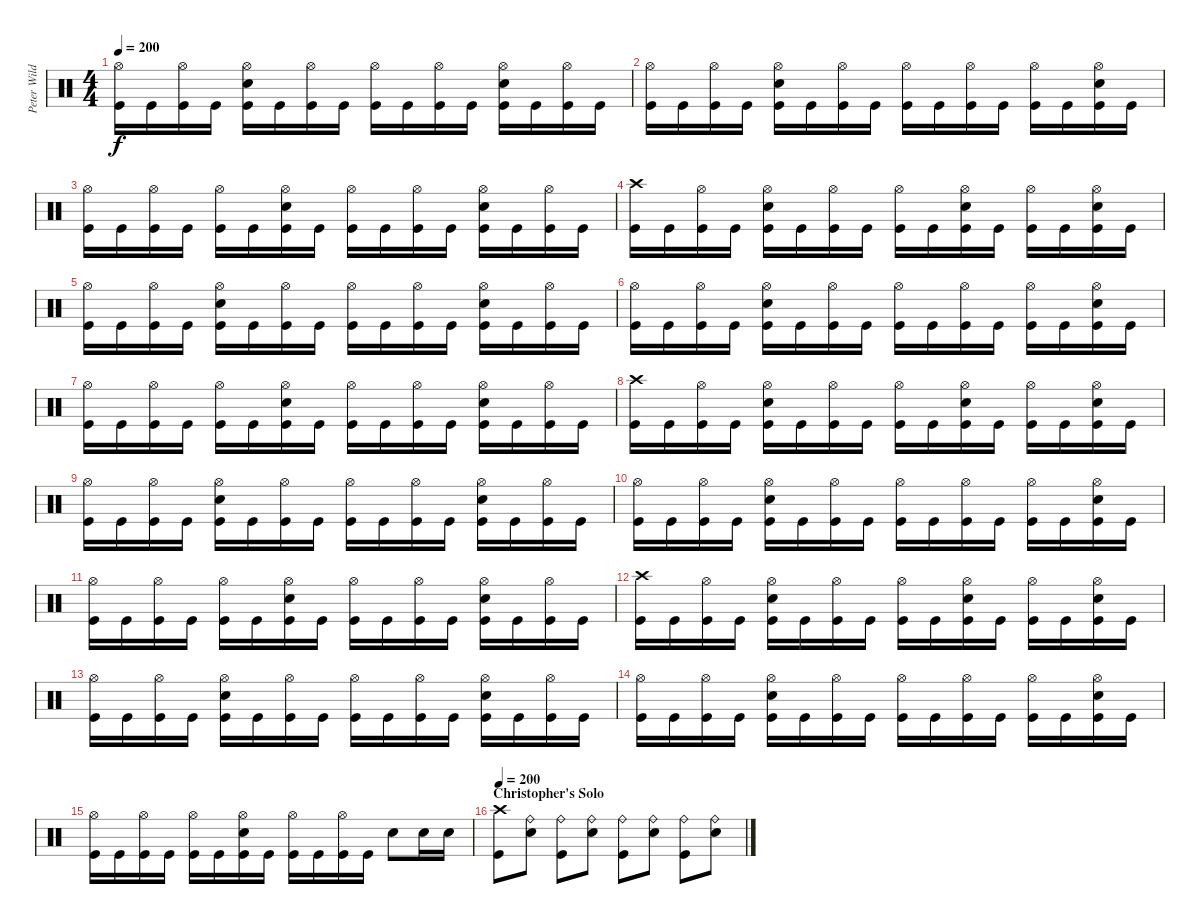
\track ("Peter Wildoer " "Peter Wild") {instrument percussion}
\staff {score}
\articulation defaults
\ts (4 4)
\tempo 200
\clef neutral
\ks c
("Hi-Hat (open)" "Kick (hit)").16{dy f} "Kick (hit)".16 ("Hi-Hat (open)" "Kick (hit)").16 "Kick (hit)".16 ("Hi-Hat (open)" "Electric Snare (hit)" "Kick (hit)").16 "Kick (hit)".16 ("Hi-Hat (open)" "Kick (hit)").16 "Kick (hit)".16 ("Hi-Hat (open)" "Kick (hit)").16 "Kick (hit)".16 ("Hi-Hat (open)" "Kick (hit)").16 "Kick (hit)".16 ("Hi-Hat (open)" "Electric Snare (hit)" "Kick (hit)").16 "Kick (hit)".16 ("Hi-Hat (open)" "Kick (hit)").16 "Kick (hit)".16 |
("Hi-Hat (open)" "Kick (hit)").16 "Kick (hit)".16 ("Hi-Hat (open)" "Kick (hit)").16 "Kick (hit)".16 ("Hi-Hat (open)" "Electric Snare (hit)" "Kick (hit)").16 "Kick (hit)".16 ("Hi-Hat (open)" "Kick (hit)").16 "Kick (hit)".16 ("Hi-Hat (open)" "Kick (hit)").16 "Kick (hit)".16 ("Hi-Hat (open)" "Kick (hit)").16 "Kick (hit)".16 ("Hi-Hat (open)" "Kick (hit)").16 "Kick (hit)".16 ("Hi-Hat (open)" "Electric Snare (hit)" "Kick (hit)").16 "Kick (hit)".16 |
("Hi-Hat (open)" "Kick (hit)").16 "Kick (hit)".16 ("Hi-Hat (open)" "Kick (hit)").16 "Kick (hit)".16 ("Hi-Hat (open)" "Kick (hit)").16 "Kick (hit)".16 ("Hi-Hat (open)" "Electric Snare (hit)" "Kick (hit)").16 "Kick (hit)".16 ("Hi-Hat (open)" "Kick (hit)").16 "Kick (hit)".16 ("Hi-Hat (open)" "Kick (hit)").16 "Kick (hit)".16 ("Hi-Hat (open)" "Electric Snare (hit)" "Kick (hit)").16 "Kick (hit)".16 ("Hi-Hat (open)" "Kick (hit)").16 "Kick (hit)".16 |
("Crash high (hit)" "Kick (hit)").16 "Kick (hit)".16 ("Hi-Hat (open)" "Kick (hit)").16 "Kick (hit)".16 ("Hi-Hat (open)" "Electric Snare (hit)" "Kick (hit)").16 "Kick (hit)".16 ("Hi-Hat (open)" "Kick (hit)").16 "Kick (hit)".16 ("Hi-Hat (open)" "Kick (hit)").16 "Kick (hit)".16 ("Hi-Hat (open)" "Electric Snare (hit)" "Kick (hit)").16 "Kick (hit)".16 ("Hi-Hat (open)" "Kick (hit)").16 "Kick (hit)".16 ("Hi-Hat (open)" "Electric Snare (hit)" "Kick (hit)").16 "Kick (hit)".16 |
("Hi-Hat (open)" "Kick (hit)").16 "Kick (hit)".16 ("Hi-Hat (open)" "Kick (hit)").16 "Kick (hit)".16 ("Hi-Hat (open)" "Electric Snare (hit)" "Kick (hit)").16 "Kick (hit)".16 ("Hi-Hat (open)" "Kick (hit)").16 "Kick (hit)".16 ("Hi-Hat (open)" "Kick (hit)").16 "Kick (hit)".16 ("Hi-Hat (open)" "Kick (hit)").16 "Kick (hit)".16 ("Hi-Hat (open)" "Electric Snare (hit)" "Kick (hit)").16 "Kick (hit)".16 ("Hi-Hat (open)" "Kick (hit)").16 "Kick (hit)".16 |
("Hi-Hat (open)" "Kick (hit)").16 "Kick (hit)".16 ("Hi-Hat (open)" "Kick (hit)").16 "Kick (hit)".16 ("Hi-Hat (open)" "Electric Snare (hit)" "Kick (hit)").16 "Kick (hit)".16 ("Hi-Hat (open)" "Kick (hit)").16 "Kick (hit)".16 ("Hi-Hat (open)" "Kick (hit)").16 "Kick (hit)".16 ("Hi-Hat (open)" "Kick (hit)").16 "Kick (hit)".16 ("Hi-Hat (open)" "Kick (hit)").16 "Kick (hit)".16 ("Hi-Hat (open)" "Electric Snare (hit)" "Kick (hit)").16 "Kick (hit)".16 |
("Hi-Hat (open)" "Kick (hit)").16 "Kick (hit)".16 ("Hi-Hat (open)" "Kick (hit)").16 "Kick (hit)".16 ("Hi-Hat (open)" "Kick (hit)").16 "Kick (hit)".16 ("Hi-Hat (open)" "Electric Snare (hit)" "Kick (hit)").16 "Kick (hit)".16 ("Hi-Hat (open)" "Kick (hit)").16 "Kick (hit)".16 ("Hi-Hat (open)" "Kick (hit)").16 "Kick (hit)".16 ("Hi-Hat (open)" "Electric Snare (hit)" "Kick (hit)").16 "Kick (hit)".16 ("Hi-Hat (open)" "Kick (hit)").16 "Kick (hit)".16 |
("Crash high (hit)" "Kick (hit)").16 "Kick (hit)".16 ("Hi-Hat (open)" "Kick (hit)").16 "Kick (hit)".16 ("Hi-Hat (open)" "Electric Snare (hit)" "Kick (hit)").16 "Kick (hit)".16 ("Hi-Hat (open)" "Kick (hit)").16 "Kick (hit)".16 ("Hi-Hat (open)" "Kick (hit)").16 "Kick (hit)".16 ("Hi-Hat (open)" "Electric Snare (hit)" "Kick (hit)").16 "Kick (hit)".16 ("Hi-Hat (open)" "Kick (hit)").16 "Kick (hit)".16 ("Hi-Hat (open)" "Electric Snare (hit)" "Kick (hit)").16 "Kick (hit)".16 |
("Hi-Hat (open)" "Kick (hit)").16 "Kick (hit)".16 ("Hi-Hat (open)" "Kick (hit)").16 "Kick (hit)".16 ("Hi-Hat (open)" "Electric Snare (hit)" "Kick (hit)").16 "Kick (hit)".16 ("Hi-Hat (open)" "Kick (hit)").16 "Kick (hit)".16 ("Hi-Hat (open)" "Kick (hit)").16 "Kick (hit)".16 ("Hi-Hat (open)" "Kick (hit)").16 "Kick (hit)".16 ("Hi-Hat (open)" "Electric Snare (hit)" "Kick (hit)").16 "Kick (hit)".16 ("Hi-Hat (open)" "Kick (hit)").16 "Kick (hit)".16 |
("Hi-Hat (open)" "Kick (hit)").16 "Kick (hit)".16 ("Hi-Hat (open)" "Kick (hit)").16 "Kick (hit)".16 ("Hi-Hat (open)" "Electric Snare (hit)" "Kick (hit)").16 "Kick (hit)".16 ("Hi-Hat (open)" "Kick (hit)").16 "Kick (hit)".16 ("Hi-Hat (open)" "Kick (hit)").16 "Kick (hit)".16 ("Hi-Hat (open)" "Kick (hit)").16 "Kick (hit)".16 ("Hi-Hat (open)" "Kick (hit)").16 "Kick (hit)".16 ("Hi-Hat (open)" "Electric Snare (hit)" "Kick (hit)").16 "Kick (hit)".16 |
("Hi-Hat (open)" "Kick (hit)").16 "Kick (hit)".16 ("Hi-Hat (open)" "Kick (hit)").16 "Kick (hit)".16 ("Hi-Hat (open)" "Kick (hit)").16 "Kick (hit)".16 ("Hi-Hat (open)" "Electric Snare (hit)" "Kick (hit)").16 "Kick (hit)".16 ("Hi-Hat (open)" "Kick (hit)").16 "Kick (hit)".16 ("Hi-Hat (open)" "Kick (hit)").16 "Kick (hit)".16 ("Hi-Hat (open)" "Electric Snare (hit)" "Kick (hit)").16 "Kick (hit)".16 ("Hi-Hat (open)" "Kick (hit)").16 "Kick (hit)".16 |
("Crash high (hit)" "Kick (hit)").16 "Kick (hit)".16 ("Hi-Hat (open)" "Kick (hit)").16 "Kick (hit)".16 ("Hi-Hat (open)" "Electric Snare (hit)" "Kick (hit)").16 "Kick (hit)".16 ("Hi-Hat (open)" "Kick (hit)").16 "Kick (hit)".16 ("Hi-Hat (open)" "Kick (hit)").16 "Kick (hit)".16 ("Hi-Hat (open)" "Electric Snare (hit)" "Kick (hit)").16 "Kick (hit)".16 ("Hi-Hat (open)" "Kick (hit)").16 "Kick (hit)".16 ("Hi-Hat (open)" "Electric Snare (hit)" "Kick (hit)").16 "Kick (hit)".16 |
("Hi-Hat (open)" "Kick (hit)").16 "Kick (hit)".16 ("Hi-Hat (open)" "Kick (hit)").16 "Kick (hit)".16 ("Hi-Hat (open)" "Electric Snare (hit)" "Kick (hit)").16 "Kick (hit)".16 ("Hi-Hat (open)" "Kick (hit)").16 "Kick (hit)".16 ("Hi-Hat (open)" "Kick (hit)").16 "Kick (hit)".16 ("Hi-Hat (open)" "Kick (hit)").16 "Kick (hit)".16 ("Hi-Hat (open)" "Electric Snare (hit)" "Kick (hit)").16 "Kick (hit)".16 ("Hi-Hat (open)" "Kick (hit)").16 "Kick (hit)".16 |
("Hi-Hat (open)" "Kick (hit)").16 "Kick (hit)".16 ("Hi-Hat (open)" "Kick (hit)").16 "Kick (hit)".16 ("Hi-Hat (open)" "Electric Snare (hit)" "Kick (hit)").16 "Kick (hit)".16 ("Hi-Hat (open)" "Kick (hit)").16 "Kick (hit)".16 ("Hi-Hat (open)" "Kick (hit)").16 "Kick (hit)".16 ("Hi-Hat (open)" "Kick (hit)").16 "Kick (hit)".16 ("Hi-Hat (open)" "Kick (hit)").16 "Kick (hit)".16 ("Hi-Hat (open)" "Electric Snare (hit)" "Kick (hit)").16 "Kick (hit)".16 |
("Hi-Hat (open)" "Kick (hit)").16 "Kick (hit)".16 ("Hi-Hat (open)" "Kick (hit)").16 "Kick (hit)".16 ("Hi-Hat (open)" "Kick (hit)").16 "Kick (hit)".16 ("Hi-Hat (open)" "Electric Snare (hit)" "Kick (hit)").16 "Kick (hit)".16 ("Hi-Hat (open)" "Kick (hit)").16 "Kick (hit)".16 ("Hi-Hat (open)" "Kick (hit)").16 "Kick (hit)".16 "Electric Snare (hit)".8 "Electric Snare (hit)".16 "Electric Snare (hit)".16 |
\section ("" "Christopher's Solo")
\tempo 200
("Crash high (hit)" "Kick (hit)").8 ("Ride (bell)" "Electric Snare (hit)").8 ("Ride (bell)" "Kick (hit)").8 ("Ride (bell)" "Electric Snare (hit)").8 ("Ride (bell)" "Kick (hit)").8 ("Ride (bell)" "Electric Snare (hit)").8 ("Ride (bell)" "Kick (hit)").8 ("Ride (bell)" "Electric Snare (hit)").8
